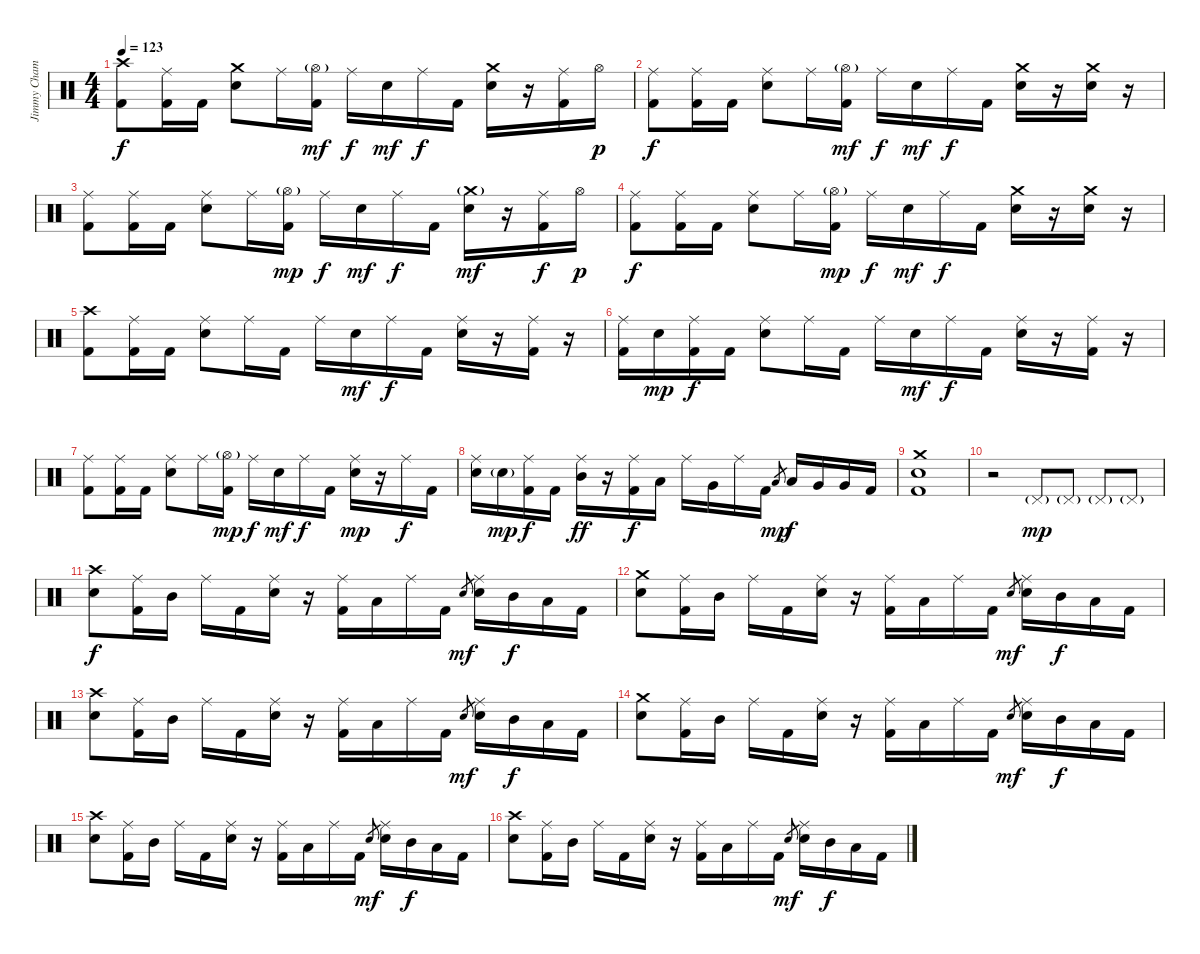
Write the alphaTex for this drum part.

\track ("Jimmy Chamberlin" "Jimmy Cham") {instrument percussion}
\staff {score}
\articulation defaults
\ts (4 4)
\tempo 123
\clef neutral
\ks c
("Crash high (hit)" "Kick (hit) 2").8{dy f} ("Ride (middle)" "Kick (hit) 2").16 "Kick (hit) 2".16 ("Crash medium (hit)" "Electric Snare (hit)").8 "Ride (middle)".16 ("Hi-Hat (open)"{g} "Kick (hit) 2").16{dy mf} "Ride (middle)".16{dy f} "Electric Snare (hit)".16{dy mf} "Ride (middle)".16{dy f} "Kick (hit) 2".16 ("Crash medium (hit)" "Electric Snare (hit)").16 r.16 ("Ride (middle)" "Kick (hit) 2").16 "Hi-Hat (open)".16{dy p} |
("Ride (middle)" "Kick (hit) 2").8{dy f} ("Ride (middle)" "Kick (hit) 2").16 "Kick (hit) 2".16 ("Ride (middle)" "Electric Snare (hit)").8 "Ride (middle)".16 ("Hi-Hat (open)"{g} "Kick (hit) 2").16{dy mf} "Ride (middle)".16{dy f} "Electric Snare (hit)".16{dy mf} "Ride (middle)".16{dy f} "Kick (hit) 2".16 ("Crash medium (hit)" "Electric Snare (hit)").16 r.16 ("Crash medium (hit)" "Electric Snare (hit)").16 r.16 |
("Ride (middle)" "Kick (hit) 2").8 ("Ride (middle)" "Kick (hit) 2").16 "Kick (hit) 2".16 ("Ride (middle)" "Electric Snare (hit)").8 "Ride (middle)".16 ("Hi-Hat (open)"{g} "Kick (hit) 2").16{dy mp} "Ride (middle)".16{dy f} "Electric Snare (hit)".16{dy mf} "Ride (middle)".16{dy f} "Kick (hit) 2".16 ("Crash medium (hit)"{g} "Electric Snare (hit)").16{dy mf} r.16 ("Ride (middle)" "Kick (hit) 2").16{dy f} "Hi-Hat (open)".16{dy p} |
("Ride (middle)" "Kick (hit) 2").8{dy f} ("Ride (middle)" "Kick (hit) 2").16 "Kick (hit) 2".16 ("Ride (middle)" "Electric Snare (hit)").8 "Ride (middle)".16 ("Hi-Hat (open)"{g} "Kick (hit) 2").16{dy mp} "Ride (middle)".16{dy f} "Electric Snare (hit)".16{dy mf} "Ride (middle)".16{dy f} "Kick (hit) 2".16 ("Crash medium (hit)" "Electric Snare (hit)").16 r.16 ("Crash medium (hit)" "Electric Snare (hit)").16 r.16 |
("Crash high (hit)" "Kick (hit) 2").8 ("Ride (middle)" "Kick (hit) 2").16 "Kick (hit) 2".16 ("Ride (middle)" "Electric Snare (hit)").8 "Ride (middle)".16 "Kick (hit) 2".16 "Ride (middle)".16 "Electric Snare (hit)".16{dy mf} "Ride (middle)".16{dy f} "Kick (hit) 2".16 ("Ride (middle)" "Electric Snare (hit)").16 r.16 ("Ride (middle)" "Kick (hit) 2").16 r.16 |
("Ride (middle)" "Kick (hit) 2").16 "Electric Snare (hit)".16{dy mp} ("Ride (middle)" "Kick (hit) 2").16{dy f} "Kick (hit) 2".16 ("Ride (middle)" "Electric Snare (hit)").8 "Ride (middle)".16 "Kick (hit) 2".16 "Ride (middle)".16 "Electric Snare (hit)".16{dy mf} "Ride (middle)".16{dy f} "Kick (hit) 2".16 ("Ride (middle)" "Electric Snare (hit)").16 r.16 ("Ride (middle)" "Kick (hit) 2").16 r.16 |
("Ride (middle)" "Kick (hit) 2").8 ("Ride (middle)" "Kick (hit) 2").16 "Kick (hit) 2".16 ("Ride (middle)" "Electric Snare (hit)").8 "Ride (middle)".16 ("Hi-Hat (open)"{g} "Kick (hit) 2").16{dy mp} "Ride (middle)".16{dy f} "Electric Snare (hit)".16{dy mf} "Ride (middle)".16{dy f} "Kick (hit) 2".16 ("Ride (middle)" "Electric Snare (hit)").16{dy mp} r.16 "Ride (middle)".16{dy f} "Kick (hit) 2".16 |
("Ride (middle)" "Electric Snare (hit)").16 "Electric Snare (hit)"{g}.16{dy mp} ("Ride (middle)" "Kick (hit) 2").16{dy f} "Kick (hit) 2".16 ("Ride (middle)" "Mid Tom (hit)").16{dy ff} r.16 ("Ride (middle)" "Kick (hit) 2").16{dy f} "Low Tom (hit)".16 "Ride (middle)".16 "Very Low Tom (hit)".16 "Ride (middle)".16 "Kick (hit) 2".16 "Low Tom (hit)".8{gr dy mp} "Low Tom (hit)".16{dy f} "Very Low Tom (hit)".16 "Very Low Tom (hit)".16 "Kick (hit) 2".16 |
("Crash medium (hit)" "Electric Snare (hit)" "Kick (hit) 2").1 |
r.2 "Pedal Hi-Hat (hit)"{g}.8{dy mp} "Pedal Hi-Hat (hit)"{g}.8 "Pedal Hi-Hat (hit)"{g}.8 "Pedal Hi-Hat (hit)"{g}.8 |
("Crash high (hit)" "Electric Snare (hit)").8{dy f} ("Ride (middle)" "Kick (hit) 2").16 "Mid Tom (hit)".16 "Ride (middle)".16 "Kick (hit) 2".16 ("Ride (middle)" "Electric Snare (hit)").16 r.16 ("Ride (middle)" "Kick (hit) 2").16 "Low Tom (hit)".16 "Ride (middle)".16 "Kick (hit) 2".16 "Electric Snare (hit)".8{gr dy mf} ("Ride (middle)" "Electric Snare (hit)").16 "Mid Tom (hit)".16{dy f} "Low Tom (hit)".16 "Kick (hit) 2".16 |
("Crash medium (hit)" "Electric Snare (hit)").8 ("Ride (middle)" "Kick (hit) 2").16 "Mid Tom (hit)".16 "Ride (middle)".16 "Kick (hit) 2".16 ("Ride (middle)" "Electric Snare (hit)").16 r.16 ("Ride (middle)" "Kick (hit) 2").16 "Low Tom (hit)".16 "Ride (middle)".16 "Kick (hit) 2".16 "Electric Snare (hit)".8{gr dy mf} ("Ride (middle)" "Electric Snare (hit)").16 "Mid Tom (hit)".16{dy f} "Low Tom (hit)".16 "Kick (hit) 2".16 |
("Crash high (hit)" "Electric Snare (hit)").8 ("Ride (middle)" "Kick (hit) 2").16 "Mid Tom (hit)".16 "Ride (middle)".16 "Kick (hit) 2".16 ("Ride (middle)" "Electric Snare (hit)").16 r.16 ("Ride (middle)" "Kick (hit) 2").16 "Low Tom (hit)".16 "Ride (middle)".16 "Kick (hit) 2".16 "Electric Snare (hit)".8{gr dy mf} ("Ride (middle)" "Electric Snare (hit)").16 "Mid Tom (hit)".16{dy f} "Low Tom (hit)".16 "Kick (hit) 2".16 |
("Crash medium (hit)" "Electric Snare (hit)").8 ("Ride (middle)" "Kick (hit) 2").16 "Mid Tom (hit)".16 "Ride (middle)".16 "Kick (hit) 2".16 ("Ride (middle)" "Electric Snare (hit)").16 r.16 ("Ride (middle)" "Kick (hit) 2").16 "Low Tom (hit)".16 "Ride (middle)".16 "Kick (hit) 2".16 "Electric Snare (hit)".8{gr dy mf} ("Ride (middle)" "Electric Snare (hit)").16 "Mid Tom (hit)".16{dy f} "Low Tom (hit)".16 "Kick (hit) 2".16 |
("Crash high (hit)" "Electric Snare (hit)").8 ("Ride (middle)" "Kick (hit) 2").16 "Mid Tom (hit)".16 "Ride (middle)".16 "Kick (hit) 2".16 ("Ride (middle)" "Electric Snare (hit)").16 r.16 ("Ride (middle)" "Kick (hit) 2").16 "Low Tom (hit)".16 "Ride (middle)".16 "Kick (hit) 2".16 "Electric Snare (hit)".8{gr dy mf} ("Ride (middle)" "Electric Snare (hit)").16 "Mid Tom (hit)".16{dy f} "Low Tom (hit)".16 "Kick (hit) 2".16 |
("Crash high (hit)" "Electric Snare (hit)").8 ("Ride (middle)" "Kick (hit) 2").16 "Mid Tom (hit)".16 "Ride (middle)".16 "Kick (hit) 2".16 ("Ride (middle)" "Electric Snare (hit)").16 r.16 ("Ride (middle)" "Kick (hit) 2").16 "Low Tom (hit)".16 "Ride (middle)".16 "Kick (hit) 2".16 "Electric Snare (hit)".8{gr dy mf} ("Ride (middle)" "Electric Snare (hit)").16 "Mid Tom (hit)".16{dy f} "Low Tom (hit)".16 "Kick (hit) 2".16
